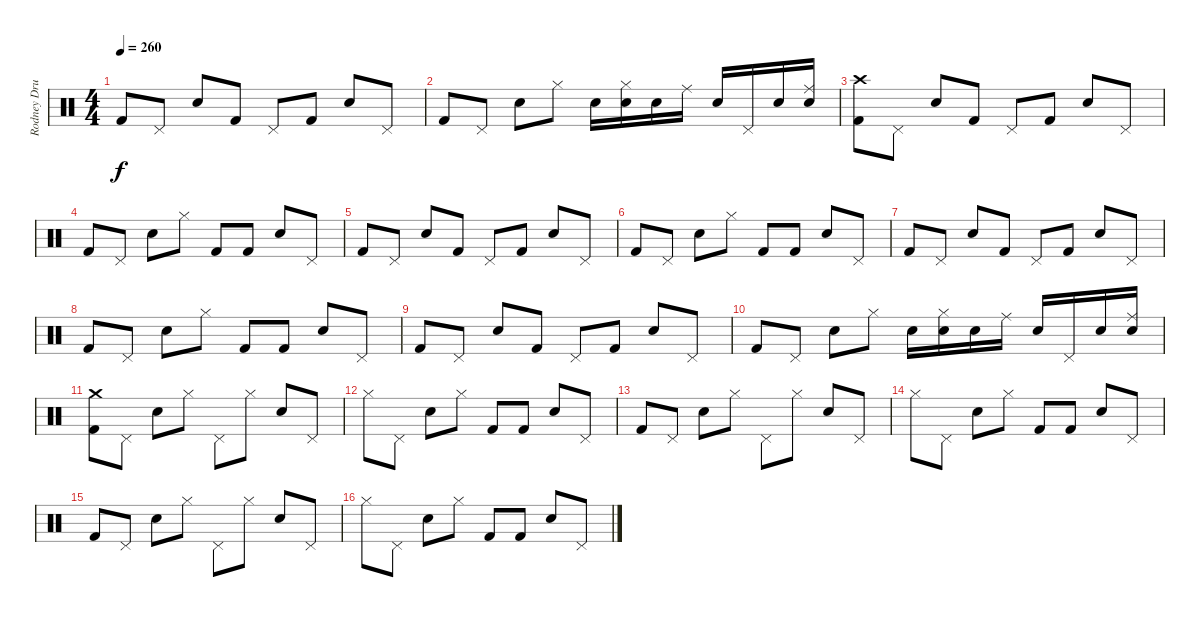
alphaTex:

\track ("Rodney Drums" "Rodney Dru") {instrument percussion}
\staff {score}
\articulation defaults
\ts (4 4)
\tempo 260
\clef neutral
\ks c "Kick (hit) 2".8{dy f} "Pedal Hi-Hat (hit)".8 "Electric Snare (hit)".8 "Kick (hit) 2".8 "Pedal Hi-Hat (hit)".8 "Kick (hit) 2".8 "Electric Snare (hit)".8 "Pedal Hi-Hat (hit)".8
|
"Kick (hit) 2".8 "Pedal Hi-Hat (hit)".8 "Electric Snare (hit)".8 "Hi-Hat (closed)".8 "Electric Snare (hit)".16 ("Hi-Hat (closed)" "Electric Snare (hit)").16 "Electric Snare (hit)".16 "Ride (middle)".16 "Electric Snare (hit)".16 "Pedal Hi-Hat (hit)".16 "Electric Snare (hit)".16 ("Electric Snare (hit)" "Ride (middle)").16 |
("Crash high (hit)" "Kick (hit) 2").8 "Pedal Hi-Hat (hit)".8 "Electric Snare (hit)".8 "Kick (hit) 2".8 "Pedal Hi-Hat (hit)".8 "Kick (hit) 2".8 "Electric Snare (hit)".8 "Pedal Hi-Hat (hit)".8 |
"Kick (hit) 2".8 "Pedal Hi-Hat (hit)".8 "Electric Snare (hit)".8 "Hi-Hat (closed)".8 "Kick (hit) 2".8 "Kick (hit) 2".8 "Electric Snare (hit)".8 "Pedal Hi-Hat (hit)".8 |
"Kick (hit) 2".8 "Pedal Hi-Hat (hit)".8 "Electric Snare (hit)".8 "Kick (hit) 2".8 "Pedal Hi-Hat (hit)".8 "Kick (hit) 2".8 "Electric Snare (hit)".8 "Pedal Hi-Hat (hit)".8 |
"Kick (hit) 2".8 "Pedal Hi-Hat (hit)".8 "Electric Snare (hit)".8 "Hi-Hat (closed)".8 "Kick (hit) 2".8 "Kick (hit) 2".8 "Electric Snare (hit)".8 "Pedal Hi-Hat (hit)".8 |
"Kick (hit) 2".8 "Pedal Hi-Hat (hit)".8 "Electric Snare (hit)".8 "Kick (hit) 2".8 "Pedal Hi-Hat (hit)".8 "Kick (hit) 2".8 "Electric Snare (hit)".8 "Pedal Hi-Hat (hit)".8 |
"Kick (hit) 2".8 "Pedal Hi-Hat (hit)".8 "Electric Snare (hit)".8 "Hi-Hat (closed)".8 "Kick (hit) 2".8 "Kick (hit) 2".8 "Electric Snare (hit)".8 "Pedal Hi-Hat (hit)".8 |
"Kick (hit) 2".8 "Pedal Hi-Hat (hit)".8 "Electric Snare (hit)".8 "Kick (hit) 2".8 "Pedal Hi-Hat (hit)".8 "Kick (hit) 2".8 "Electric Snare (hit)".8 "Pedal Hi-Hat (hit)".8 |
"Kick (hit) 2".8 "Pedal Hi-Hat (hit)".8 "Electric Snare (hit)".8 "Hi-Hat (closed)".8 "Electric Snare (hit)".16 ("Hi-Hat (closed)" "Electric Snare (hit)").16 "Electric Snare (hit)".16 "Ride (middle)".16 "Electric Snare (hit)".16 "Pedal Hi-Hat (hit)".16 "Electric Snare (hit)".16 ("Electric Snare (hit)" "Ride (middle)").16 |
("Crash medium (hit)" "Kick (hit) 2").8 "Pedal Hi-Hat (hit)".8 "Electric Snare (hit)".8 "Hi-Hat (closed)".8 "Pedal Hi-Hat (hit)".8 "Hi-Hat (closed)".8 "Electric Snare (hit)".8 "Pedal Hi-Hat (hit)".8 |
"Hi-Hat (closed)".8 "Pedal Hi-Hat (hit)".8 "Electric Snare (hit)".8 "Hi-Hat (closed)".8 "Kick (hit) 2".8 "Kick (hit) 2".8 "Electric Snare (hit)".8 "Pedal Hi-Hat (hit)".8 |
"Kick (hit) 2".8 "Pedal Hi-Hat (hit)".8 "Electric Snare (hit)".8 "Hi-Hat (closed)".8 "Pedal Hi-Hat (hit)".8 "Hi-Hat (closed)".8 "Electric Snare (hit)".8 "Pedal Hi-Hat (hit)".8 |
"Hi-Hat (closed)".8 "Pedal Hi-Hat (hit)".8 "Electric Snare (hit)".8 "Hi-Hat (closed)".8 "Kick (hit) 2".8 "Kick (hit) 2".8 "Electric Snare (hit)".8 "Pedal Hi-Hat (hit)".8 |
"Kick (hit) 2".8 "Pedal Hi-Hat (hit)".8 "Electric Snare (hit)".8 "Hi-Hat (closed)".8 "Pedal Hi-Hat (hit)".8 "Hi-Hat (closed)".8 "Electric Snare (hit)".8 "Pedal Hi-Hat (hit)".8 |
"Hi-Hat (closed)".8 "Pedal Hi-Hat (hit)".8 "Electric Snare (hit)".8 "Hi-Hat (closed)".8 "Kick (hit) 2".8 "Kick (hit) 2".8 "Electric Snare (hit)".8 "Pedal Hi-Hat (hit)".8
